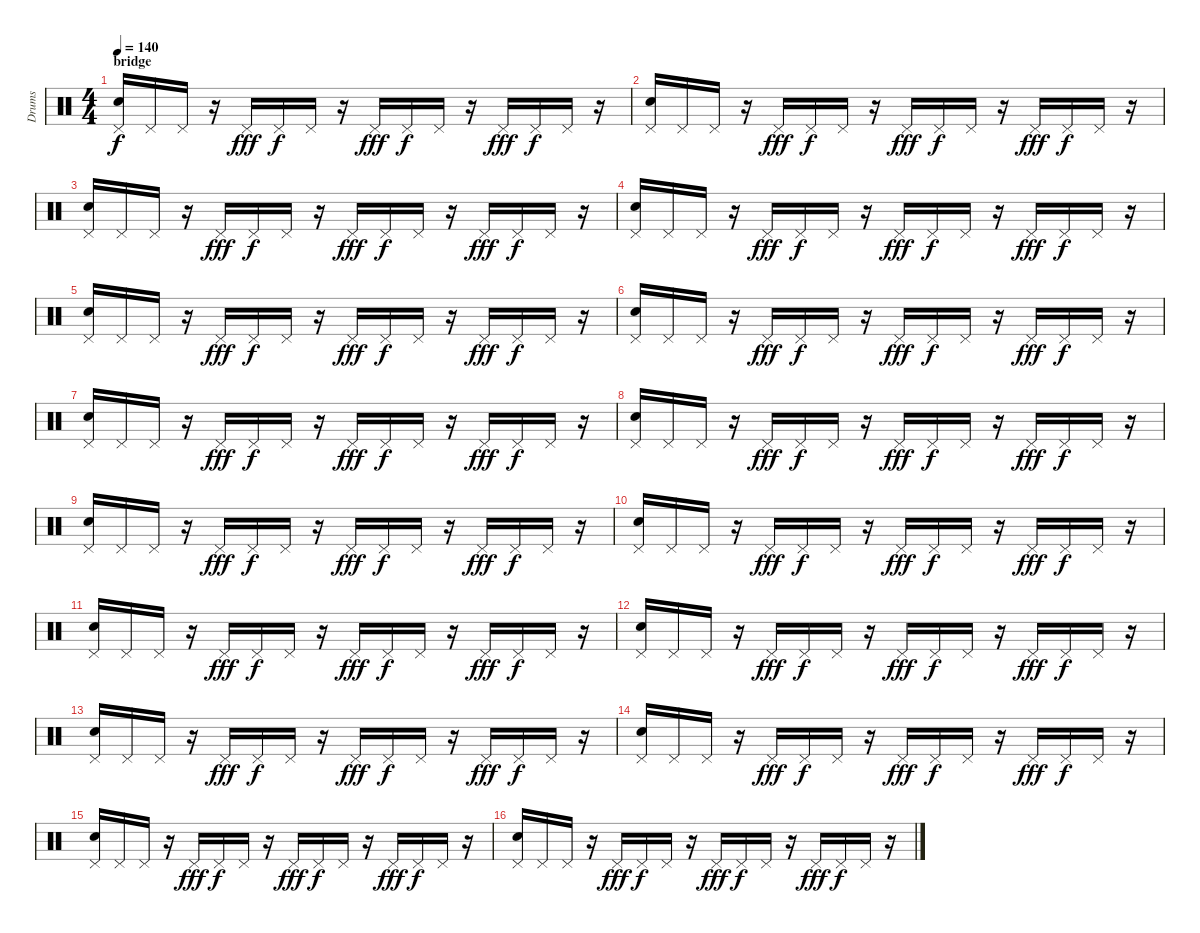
\track ("Drums" "Drums") {instrument percussion}
\staff {score}
\articulation defaults
\ts (4 4)
\section ("" "bridge")
\tempo 140
\clef neutral
\ks c
("Electric Snare (hit)" "Pedal Hi-Hat (hit)").16{dy f} "Pedal Hi-Hat (hit)".16 "Pedal Hi-Hat (hit)".16 r.16 "Pedal Hi-Hat (hit)".16{dy fff} "Pedal Hi-Hat (hit)".16{dy f} "Pedal Hi-Hat (hit)".16 r.16 "Pedal Hi-Hat (hit)".16{dy fff} "Pedal Hi-Hat (hit)".16{dy f} "Pedal Hi-Hat (hit)".16 r.16 "Pedal Hi-Hat (hit)".16{dy fff} "Pedal Hi-Hat (hit)".16{dy f} "Pedal Hi-Hat (hit)".16 r.16 |
("Electric Snare (hit)" "Pedal Hi-Hat (hit)").16 "Pedal Hi-Hat (hit)".16 "Pedal Hi-Hat (hit)".16 r.16 "Pedal Hi-Hat (hit)".16{dy fff} "Pedal Hi-Hat (hit)".16{dy f} "Pedal Hi-Hat (hit)".16 r.16 "Pedal Hi-Hat (hit)".16{dy fff} "Pedal Hi-Hat (hit)".16{dy f} "Pedal Hi-Hat (hit)".16 r.16 "Pedal Hi-Hat (hit)".16{dy fff} "Pedal Hi-Hat (hit)".16{dy f} "Pedal Hi-Hat (hit)".16 r.16 |
("Electric Snare (hit)" "Pedal Hi-Hat (hit)").16 "Pedal Hi-Hat (hit)".16 "Pedal Hi-Hat (hit)".16 r.16 "Pedal Hi-Hat (hit)".16{dy fff} "Pedal Hi-Hat (hit)".16{dy f} "Pedal Hi-Hat (hit)".16 r.16 "Pedal Hi-Hat (hit)".16{dy fff} "Pedal Hi-Hat (hit)".16{dy f} "Pedal Hi-Hat (hit)".16 r.16 "Pedal Hi-Hat (hit)".16{dy fff} "Pedal Hi-Hat (hit)".16{dy f} "Pedal Hi-Hat (hit)".16 r.16 |
("Electric Snare (hit)" "Pedal Hi-Hat (hit)").16 "Pedal Hi-Hat (hit)".16 "Pedal Hi-Hat (hit)".16 r.16 "Pedal Hi-Hat (hit)".16{dy fff} "Pedal Hi-Hat (hit)".16{dy f} "Pedal Hi-Hat (hit)".16 r.16 "Pedal Hi-Hat (hit)".16{dy fff} "Pedal Hi-Hat (hit)".16{dy f} "Pedal Hi-Hat (hit)".16 r.16 "Pedal Hi-Hat (hit)".16{dy fff} "Pedal Hi-Hat (hit)".16{dy f} "Pedal Hi-Hat (hit)".16 r.16 |
("Electric Snare (hit)" "Pedal Hi-Hat (hit)").16 "Pedal Hi-Hat (hit)".16 "Pedal Hi-Hat (hit)".16 r.16 "Pedal Hi-Hat (hit)".16{dy fff} "Pedal Hi-Hat (hit)".16{dy f} "Pedal Hi-Hat (hit)".16 r.16 "Pedal Hi-Hat (hit)".16{dy fff} "Pedal Hi-Hat (hit)".16{dy f} "Pedal Hi-Hat (hit)".16 r.16 "Pedal Hi-Hat (hit)".16{dy fff} "Pedal Hi-Hat (hit)".16{dy f} "Pedal Hi-Hat (hit)".16 r.16 |
("Electric Snare (hit)" "Pedal Hi-Hat (hit)").16 "Pedal Hi-Hat (hit)".16 "Pedal Hi-Hat (hit)".16 r.16 "Pedal Hi-Hat (hit)".16{dy fff} "Pedal Hi-Hat (hit)".16{dy f} "Pedal Hi-Hat (hit)".16 r.16 "Pedal Hi-Hat (hit)".16{dy fff} "Pedal Hi-Hat (hit)".16{dy f} "Pedal Hi-Hat (hit)".16 r.16 "Pedal Hi-Hat (hit)".16{dy fff} "Pedal Hi-Hat (hit)".16{dy f} "Pedal Hi-Hat (hit)".16 r.16 |
("Electric Snare (hit)" "Pedal Hi-Hat (hit)").16 "Pedal Hi-Hat (hit)".16 "Pedal Hi-Hat (hit)".16 r.16 "Pedal Hi-Hat (hit)".16{dy fff} "Pedal Hi-Hat (hit)".16{dy f} "Pedal Hi-Hat (hit)".16 r.16 "Pedal Hi-Hat (hit)".16{dy fff} "Pedal Hi-Hat (hit)".16{dy f} "Pedal Hi-Hat (hit)".16 r.16 "Pedal Hi-Hat (hit)".16{dy fff} "Pedal Hi-Hat (hit)".16{dy f} "Pedal Hi-Hat (hit)".16 r.16 |
("Electric Snare (hit)" "Pedal Hi-Hat (hit)").16 "Pedal Hi-Hat (hit)".16 "Pedal Hi-Hat (hit)".16 r.16 "Pedal Hi-Hat (hit)".16{dy fff} "Pedal Hi-Hat (hit)".16{dy f} "Pedal Hi-Hat (hit)".16 r.16 "Pedal Hi-Hat (hit)".16{dy fff} "Pedal Hi-Hat (hit)".16{dy f} "Pedal Hi-Hat (hit)".16 r.16 "Pedal Hi-Hat (hit)".16{dy fff} "Pedal Hi-Hat (hit)".16{dy f} "Pedal Hi-Hat (hit)".16 r.16 |
("Electric Snare (hit)" "Pedal Hi-Hat (hit)").16 "Pedal Hi-Hat (hit)".16 "Pedal Hi-Hat (hit)".16 r.16 "Pedal Hi-Hat (hit)".16{dy fff} "Pedal Hi-Hat (hit)".16{dy f} "Pedal Hi-Hat (hit)".16 r.16 "Pedal Hi-Hat (hit)".16{dy fff} "Pedal Hi-Hat (hit)".16{dy f} "Pedal Hi-Hat (hit)".16 r.16 "Pedal Hi-Hat (hit)".16{dy fff} "Pedal Hi-Hat (hit)".16{dy f} "Pedal Hi-Hat (hit)".16 r.16 |
("Electric Snare (hit)" "Pedal Hi-Hat (hit)").16 "Pedal Hi-Hat (hit)".16 "Pedal Hi-Hat (hit)".16 r.16 "Pedal Hi-Hat (hit)".16{dy fff} "Pedal Hi-Hat (hit)".16{dy f} "Pedal Hi-Hat (hit)".16 r.16 "Pedal Hi-Hat (hit)".16{dy fff} "Pedal Hi-Hat (hit)".16{dy f} "Pedal Hi-Hat (hit)".16 r.16 "Pedal Hi-Hat (hit)".16{dy fff} "Pedal Hi-Hat (hit)".16{dy f} "Pedal Hi-Hat (hit)".16 r.16 |
("Electric Snare (hit)" "Pedal Hi-Hat (hit)").16 "Pedal Hi-Hat (hit)".16 "Pedal Hi-Hat (hit)".16 r.16 "Pedal Hi-Hat (hit)".16{dy fff} "Pedal Hi-Hat (hit)".16{dy f} "Pedal Hi-Hat (hit)".16 r.16 "Pedal Hi-Hat (hit)".16{dy fff} "Pedal Hi-Hat (hit)".16{dy f} "Pedal Hi-Hat (hit)".16 r.16 "Pedal Hi-Hat (hit)".16{dy fff} "Pedal Hi-Hat (hit)".16{dy f} "Pedal Hi-Hat (hit)".16 r.16 |
("Electric Snare (hit)" "Pedal Hi-Hat (hit)").16 "Pedal Hi-Hat (hit)".16 "Pedal Hi-Hat (hit)".16 r.16 "Pedal Hi-Hat (hit)".16{dy fff} "Pedal Hi-Hat (hit)".16{dy f} "Pedal Hi-Hat (hit)".16 r.16 "Pedal Hi-Hat (hit)".16{dy fff} "Pedal Hi-Hat (hit)".16{dy f} "Pedal Hi-Hat (hit)".16 r.16 "Pedal Hi-Hat (hit)".16{dy fff} "Pedal Hi-Hat (hit)".16{dy f} "Pedal Hi-Hat (hit)".16 r.16 |
("Electric Snare (hit)" "Pedal Hi-Hat (hit)").16 "Pedal Hi-Hat (hit)".16 "Pedal Hi-Hat (hit)".16 r.16 "Pedal Hi-Hat (hit)".16{dy fff} "Pedal Hi-Hat (hit)".16{dy f} "Pedal Hi-Hat (hit)".16 r.16 "Pedal Hi-Hat (hit)".16{dy fff} "Pedal Hi-Hat (hit)".16{dy f} "Pedal Hi-Hat (hit)".16 r.16 "Pedal Hi-Hat (hit)".16{dy fff} "Pedal Hi-Hat (hit)".16{dy f} "Pedal Hi-Hat (hit)".16 r.16 |
("Electric Snare (hit)" "Pedal Hi-Hat (hit)").16 "Pedal Hi-Hat (hit)".16 "Pedal Hi-Hat (hit)".16 r.16 "Pedal Hi-Hat (hit)".16{dy fff} "Pedal Hi-Hat (hit)".16{dy f} "Pedal Hi-Hat (hit)".16 r.16 "Pedal Hi-Hat (hit)".16{dy fff} "Pedal Hi-Hat (hit)".16{dy f} "Pedal Hi-Hat (hit)".16 r.16 "Pedal Hi-Hat (hit)".16{dy fff} "Pedal Hi-Hat (hit)".16{dy f} "Pedal Hi-Hat (hit)".16 r.16 |
("Electric Snare (hit)" "Pedal Hi-Hat (hit)").16 "Pedal Hi-Hat (hit)".16 "Pedal Hi-Hat (hit)".16 r.16 "Pedal Hi-Hat (hit)".16{dy fff} "Pedal Hi-Hat (hit)".16{dy f} "Pedal Hi-Hat (hit)".16 r.16 "Pedal Hi-Hat (hit)".16{dy fff} "Pedal Hi-Hat (hit)".16{dy f} "Pedal Hi-Hat (hit)".16 r.16 "Pedal Hi-Hat (hit)".16{dy fff} "Pedal Hi-Hat (hit)".16{dy f} "Pedal Hi-Hat (hit)".16 r.16 |
("Electric Snare (hit)" "Pedal Hi-Hat (hit)").16 "Pedal Hi-Hat (hit)".16 "Pedal Hi-Hat (hit)".16 r.16 "Pedal Hi-Hat (hit)".16{dy fff} "Pedal Hi-Hat (hit)".16{dy f} "Pedal Hi-Hat (hit)".16 r.16 "Pedal Hi-Hat (hit)".16{dy fff} "Pedal Hi-Hat (hit)".16{dy f} "Pedal Hi-Hat (hit)".16 r.16 "Pedal Hi-Hat (hit)".16{dy fff} "Pedal Hi-Hat (hit)".16{dy f} "Pedal Hi-Hat (hit)".16 r.16
